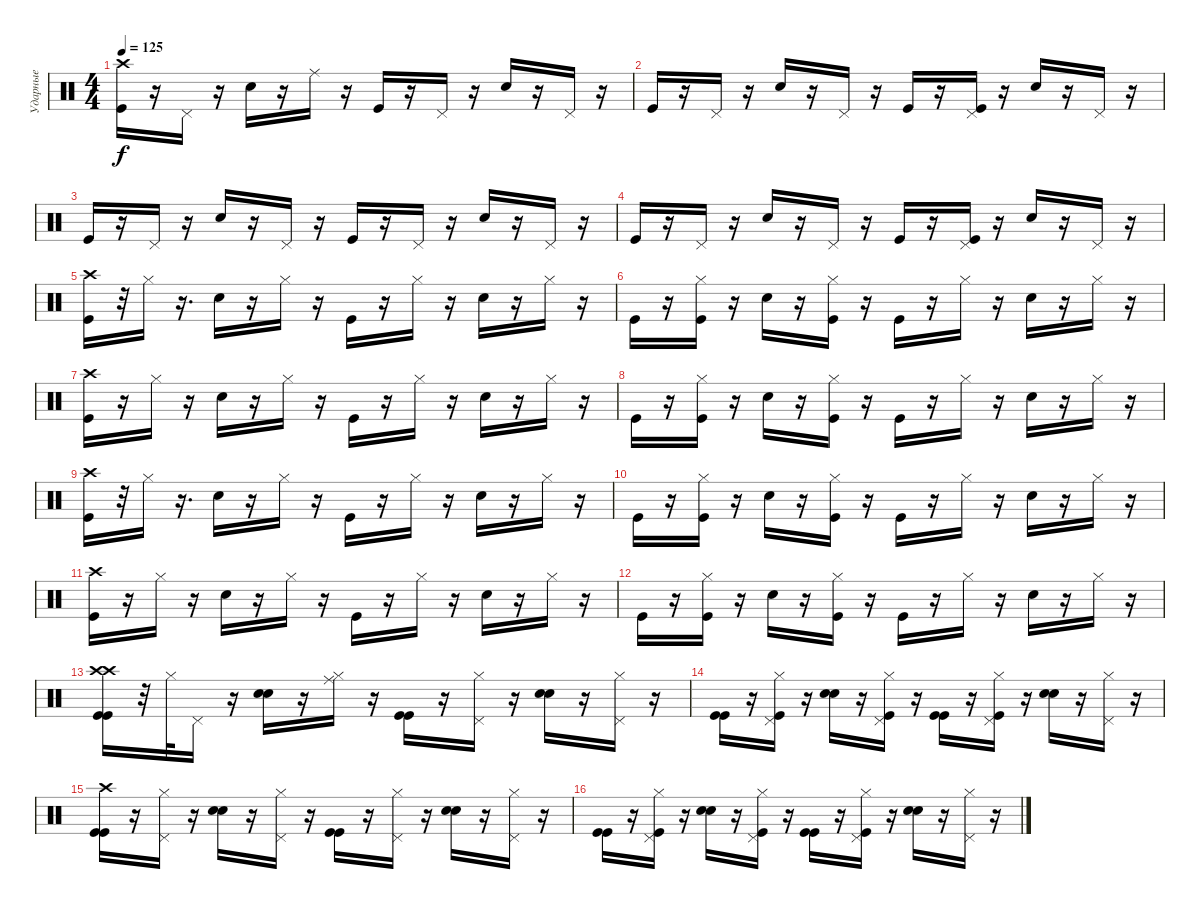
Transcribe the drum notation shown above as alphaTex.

\track ("Ударные" "Ударные") {instrument percussion}
\staff {score}
\articulation defaults
\ts (4 4)
\tempo 125
\clef neutral
\ks c
("Kick (hit)" "Crash high (hit)").16{dy f} r.16 "Pedal Hi-Hat (hit)".16 r.16 "Electric Snare (hit)".16 r.16 "Ride (middle)".16 r.16 "Kick (hit)".16 r.16 "Pedal Hi-Hat (hit)".16 r.16 "Electric Snare (hit)".16 r.16 "Pedal Hi-Hat (hit)".16 r.16 |
"Kick (hit)".16 r.16 "Pedal Hi-Hat (hit)".16 r.16 "Electric Snare (hit)".16 r.16 "Pedal Hi-Hat (hit)".16 r.16 "Kick (hit)".16 r.16 ("Kick (hit)" "Pedal Hi-Hat (hit)").16 r.16 "Electric Snare (hit)".16 r.16 "Pedal Hi-Hat (hit)".16 r.16 |
"Kick (hit)".16 r.16 "Pedal Hi-Hat (hit)".16 r.16 "Electric Snare (hit)".16 r.16 "Pedal Hi-Hat (hit)".16 r.16 "Kick (hit)".16 r.16 "Pedal Hi-Hat (hit)".16 r.16 "Electric Snare (hit)".16 r.16 "Pedal Hi-Hat (hit)".16 r.16 |
"Kick (hit)".16 r.16 "Pedal Hi-Hat (hit)".16 r.16 "Electric Snare (hit)".16 r.16 "Pedal Hi-Hat (hit)".16 r.16 "Kick (hit)".16 r.16 ("Kick (hit)" "Pedal Hi-Hat (hit)").16 r.16 "Electric Snare (hit)".16 r.16 "Pedal Hi-Hat (hit)".16 r.16 |
("Crash high (hit)" "Kick (hit)").16 r.32 "Hi-Hat (closed)".16 r.16{d} "Electric Snare (hit)".16 r.16 "Hi-Hat (closed)".16 r.16 "Kick (hit)".16 r.16 "Hi-Hat (closed)".16 r.16 "Electric Snare (hit)".16 r.16 "Hi-Hat (closed)".16 r.16 |
"Kick (hit)".16 r.16 ("Hi-Hat (closed)" "Kick (hit)").16 r.16 "Electric Snare (hit)".16 r.16 ("Hi-Hat (closed)" "Kick (hit)").16 r.16 "Kick (hit)".16 r.16 "Hi-Hat (closed)".16 r.16 "Electric Snare (hit)".16 r.16 "Hi-Hat (closed)".16 r.16 |
("Crash high (hit)" "Kick (hit)").16 r.16 "Hi-Hat (closed)".16 r.16 "Electric Snare (hit)".16 r.16 "Hi-Hat (closed)".16 r.16 "Kick (hit)".16 r.16 "Hi-Hat (closed)".16 r.16 "Electric Snare (hit)".16 r.16 "Hi-Hat (closed)".16 r.16 |
"Kick (hit)".16 r.16 ("Hi-Hat (closed)" "Kick (hit)").16 r.16 "Electric Snare (hit)".16 r.16 ("Hi-Hat (closed)" "Kick (hit)").16 r.16 "Kick (hit)".16 r.16 "Hi-Hat (closed)".16 r.16 "Electric Snare (hit)".16 r.16 "Hi-Hat (closed)".16 r.16 |
("Crash high (hit)" "Kick (hit)").16 r.32 "Hi-Hat (closed)".16 r.16{d} "Electric Snare (hit)".16 r.16 "Hi-Hat (closed)".16 r.16 "Kick (hit)".16 r.16 "Hi-Hat (closed)".16 r.16 "Electric Snare (hit)".16 r.16 "Hi-Hat (closed)".16 r.16 |
"Kick (hit)".16 r.16 ("Hi-Hat (closed)" "Kick (hit)").16 r.16 "Electric Snare (hit)".16 r.16 ("Hi-Hat (closed)" "Kick (hit)").16 r.16 "Kick (hit)".16 r.16 "Hi-Hat (closed)".16 r.16 "Electric Snare (hit)".16 r.16 "Hi-Hat (closed)".16 r.16 |
("Crash high (hit)" "Kick (hit)").16 r.16 "Hi-Hat (closed)".16 r.16 "Electric Snare (hit)".16 r.16 "Hi-Hat (closed)".16 r.16 "Kick (hit)".16 r.16 "Hi-Hat (closed)".16 r.16 "Electric Snare (hit)".16 r.16 "Hi-Hat (closed)".16 r.16 |
"Kick (hit)".16 r.16 ("Hi-Hat (closed)" "Kick (hit)").16 r.16 "Electric Snare (hit)".16 r.16 ("Hi-Hat (closed)" "Kick (hit)").16 r.16 "Kick (hit)".16 r.16 "Hi-Hat (closed)".16 r.16 "Electric Snare (hit)".16 r.16 "Hi-Hat (closed)".16 r.16 |
("Kick (hit)" "Crash high (hit)" "Crash high (hit)" "Kick (hit)").16 r.32 "Hi-Hat (closed)".32 "Pedal Hi-Hat (hit)".16 r.16 ("Electric Snare (hit)" "Electric Snare (hit)").16 r.16 ("Ride (middle)" "Hi-Hat (closed)").16 r.16 ("Kick (hit)" "Kick (hit)").16 r.16 ("Pedal Hi-Hat (hit)" "Hi-Hat (closed)").16 r.16 ("Electric Snare (hit)" "Electric Snare (hit)").16 r.16 ("Pedal Hi-Hat (hit)" "Hi-Hat (closed)").16 r.16 |
("Kick (hit)" "Kick (hit)").16 r.16 ("Pedal Hi-Hat (hit)" "Hi-Hat (closed)" "Kick (hit)").16 r.16 ("Electric Snare (hit)" "Electric Snare (hit)").16 r.16 ("Pedal Hi-Hat (hit)" "Hi-Hat (closed)" "Kick (hit)").16 r.16 ("Kick (hit)" "Kick (hit)").16 r.16 ("Kick (hit)" "Pedal Hi-Hat (hit)" "Hi-Hat (closed)").16 r.16 ("Electric Snare (hit)" "Electric Snare (hit)").16 r.16 ("Pedal Hi-Hat (hit)" "Hi-Hat (closed)").16 r.16 |
("Kick (hit)" "Crash high (hit)" "Kick (hit)").16 r.16 ("Pedal Hi-Hat (hit)" "Hi-Hat (closed)").16 r.16 ("Electric Snare (hit)" "Electric Snare (hit)").16 r.16 ("Pedal Hi-Hat (hit)" "Hi-Hat (closed)").16 r.16 ("Kick (hit)" "Kick (hit)").16 r.16 ("Pedal Hi-Hat (hit)" "Hi-Hat (closed)").16 r.16 ("Electric Snare (hit)" "Electric Snare (hit)").16 r.16 ("Pedal Hi-Hat (hit)" "Hi-Hat (closed)").16 r.16 |
("Kick (hit)" "Kick (hit)").16 r.16 ("Pedal Hi-Hat (hit)" "Hi-Hat (closed)" "Kick (hit)").16 r.16 ("Electric Snare (hit)" "Electric Snare (hit)").16 r.16 ("Pedal Hi-Hat (hit)" "Hi-Hat (closed)" "Kick (hit)").16 r.16 ("Kick (hit)" "Kick (hit)").16 r.16 ("Kick (hit)" "Pedal Hi-Hat (hit)" "Hi-Hat (closed)").16 r.16 ("Electric Snare (hit)" "Electric Snare (hit)").16 r.16 ("Pedal Hi-Hat (hit)" "Hi-Hat (closed)").16 r.16
